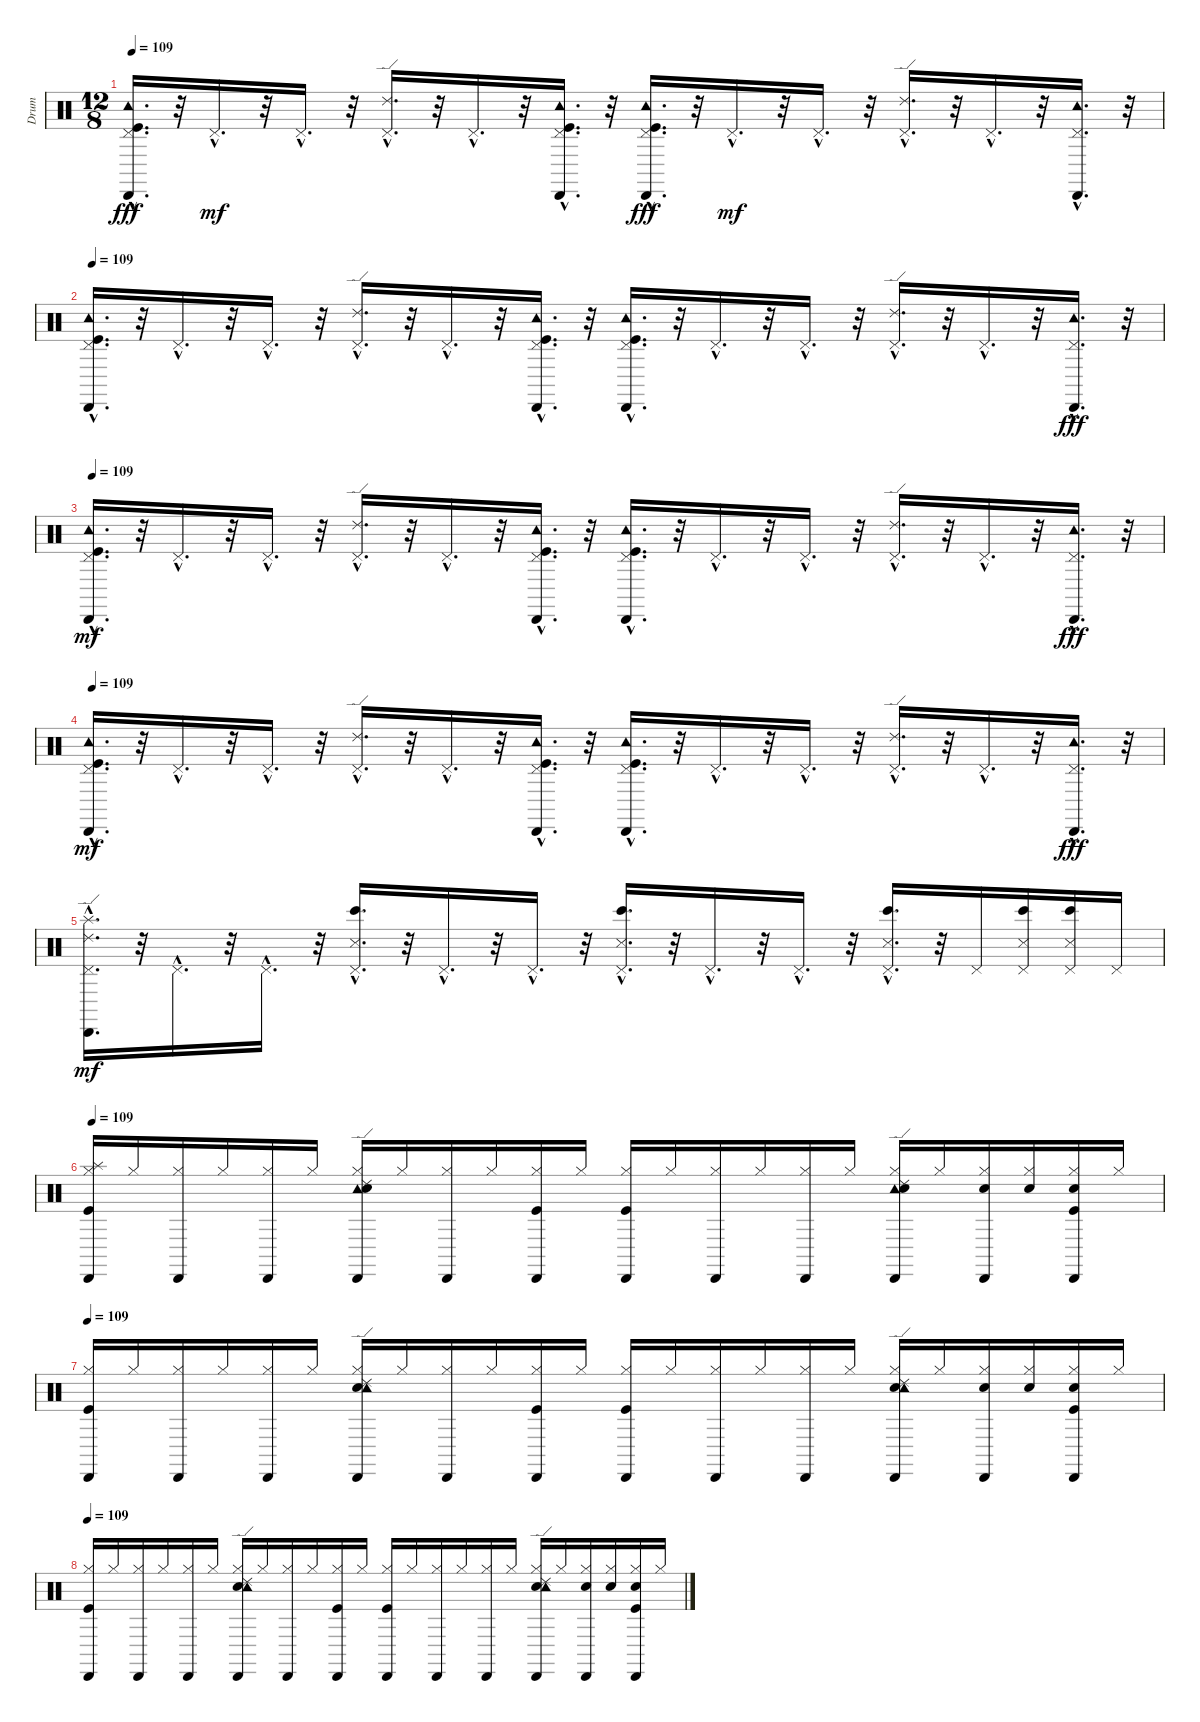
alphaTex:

\track ("Drum" "Drum") {instrument percussion}
\staff {score}
\articulation defaults
\ts (12 8)
\tempo 109
\clef neutral
\ks c
("Kick (hit)"{hac} "Tambourine (hit)"{hac} "Pedal Hi-Hat (hit)"{hac} "Cabasa (hit)"{hac}).16{d dy fff} r.32 "Pedal Hi-Hat (hit)"{hac}.16{d dy mf} r.32 "Pedal Hi-Hat (hit)"{hac}.16{d} r.32 ("Ride (edge) 2"{hac} "Pedal Hi-Hat (hit)"{hac}).16{d} r.32 "Pedal Hi-Hat (hit)"{hac}.16{d} r.32 ("Kick (hit)"{hac} "Cabasa (hit)"{hac} "Pedal Hi-Hat (hit)"{hac} "Tambourine (hit)"{hac}).16{d} r.32 ("Kick (hit)"{hac} "Tambourine (hit)"{hac} "Pedal Hi-Hat (hit)"{hac} "Cabasa (hit)"{hac}).16{d dy fff} r.32 "Pedal Hi-Hat (hit)"{hac}.16{d dy mf} r.32 "Pedal Hi-Hat (hit)"{hac}.16{d} r.32 ("Ride (edge) 2"{hac} "Pedal Hi-Hat (hit)"{hac}).16{d} r.32 "Pedal Hi-Hat (hit)"{hac}.16{d} r.32 ("Cabasa (hit)"{hac} "Pedal Hi-Hat (hit)"{hac} "Tambourine (hit)"{hac}).16{d} r.32 |
\tempo 109
("Cabasa (hit)"{hac} "Pedal Hi-Hat (hit)"{hac} "Tambourine (hit)"{hac} "Kick (hit)"{hac}).16{d} r.32 "Pedal Hi-Hat (hit)"{hac}.16{d} r.32 "Pedal Hi-Hat (hit)"{hac}.16{d} r.32 ("Pedal Hi-Hat (hit)"{hac} "Ride (edge) 2"{hac}).16{d} r.32 "Pedal Hi-Hat (hit)"{hac}.16{d} r.32 ("Tambourine (hit)"{hac} "Pedal Hi-Hat (hit)"{hac} "Cabasa (hit)"{hac} "Kick (hit)"{hac}).16{d} r.32 ("Cabasa (hit)"{hac} "Pedal Hi-Hat (hit)"{hac} "Tambourine (hit)"{hac} "Kick (hit)"{hac}).16{d} r.32 "Pedal Hi-Hat (hit)"{hac}.16{d} r.32 "Pedal Hi-Hat (hit)"{hac}.16{d} r.32 ("Pedal Hi-Hat (hit)"{hac} "Ride (edge) 2"{hac}).16{d} r.32 "Pedal Hi-Hat (hit)"{hac}.16{d} r.32 ("Tambourine (hit)"{hac} "Pedal Hi-Hat (hit)"{hac} "Cabasa (hit)"{hac}).16{d dy fff} r.32 |
\tempo 109
("Cabasa (hit)"{hac} "Pedal Hi-Hat (hit)"{hac} "Tambourine (hit)"{hac} "Kick (hit)"{hac}).16{d dy mf} r.32 "Pedal Hi-Hat (hit)"{hac}.16{d} r.32 "Pedal Hi-Hat (hit)"{hac}.16{d} r.32 ("Pedal Hi-Hat (hit)"{hac} "Ride (edge) 2"{hac}).16{d} r.32 "Pedal Hi-Hat (hit)"{hac}.16{d} r.32 ("Tambourine (hit)"{hac} "Pedal Hi-Hat (hit)"{hac} "Cabasa (hit)"{hac} "Kick (hit)"{hac}).16{d} r.32 ("Cabasa (hit)"{hac} "Pedal Hi-Hat (hit)"{hac} "Tambourine (hit)"{hac} "Kick (hit)"{hac}).16{d} r.32 "Pedal Hi-Hat (hit)"{hac}.16{d} r.32 "Pedal Hi-Hat (hit)"{hac}.16{d} r.32 ("Pedal Hi-Hat (hit)"{hac} "Ride (edge) 2"{hac}).16{d} r.32 "Pedal Hi-Hat (hit)"{hac}.16{d} r.32 ("Tambourine (hit)"{hac} "Pedal Hi-Hat (hit)"{hac} "Cabasa (hit)"{hac}).16{d dy fff} r.32 |
\tempo 109
("Cabasa (hit)"{hac} "Pedal Hi-Hat (hit)"{hac} "Tambourine (hit)"{hac} "Kick (hit)"{hac}).16{d dy mf} r.32 "Pedal Hi-Hat (hit)"{hac}.16{d} r.32 "Pedal Hi-Hat (hit)"{hac}.16{d} r.32 ("Pedal Hi-Hat (hit)"{hac} "Ride (edge) 2"{hac}).16{d} r.32 "Pedal Hi-Hat (hit)"{hac}.16{d} r.32 ("Tambourine (hit)"{hac} "Pedal Hi-Hat (hit)"{hac} "Cabasa (hit)"{hac} "Kick (hit)"{hac}).16{d} r.32 ("Cabasa (hit)"{hac} "Pedal Hi-Hat (hit)"{hac} "Tambourine (hit)"{hac} "Kick (hit)"{hac}).16{d} r.32 "Pedal Hi-Hat (hit)"{hac}.16{d} r.32 "Pedal Hi-Hat (hit)"{hac}.16{d} r.32 ("Pedal Hi-Hat (hit)"{hac} "Ride (edge) 2"{hac}).16{d} r.32 "Pedal Hi-Hat (hit)"{hac}.16{d} r.32 ("Tambourine (hit)"{hac} "Pedal Hi-Hat (hit)"{hac} "Cabasa (hit)"{hac}).16{d dy fff} r.32 |
("Cabasa (hit)"{hac} "Ride (edge) 2"{hac} "Splash (hit)"{hac} "Pedal Hi-Hat (hit)"{hac}).16{d dy mf} r.32 "Pedal Hi-Hat (hit)"{hac}.16{d} r.32 "Pedal Hi-Hat (hit)"{hac}.16{d} r.32 ("Bongo High (hit)"{hac} "Snare (side stick) 3"{hac} "Pedal Hi-Hat (hit)"{hac}).16{d} r.32 "Pedal Hi-Hat (hit)"{hac}.16{d} r.32 "Pedal Hi-Hat (hit)"{hac}.16{d} r.32 ("Snare (side stick) 3"{hac} "Bongo High (hit)"{hac} "Pedal Hi-Hat (hit)"{hac}).16{d} r.32 "Pedal Hi-Hat (hit)"{hac}.16{d} r.32 "Pedal Hi-Hat (hit)"{hac}.16{d} r.32 ("Bongo High (hit)"{hac} "Pedal Hi-Hat (hit)"{hac} "Snare (side stick) 3"{hac}).16{d} r.32 "Pedal Hi-Hat (hit)".16 ("Bongo High (hit)" "Pedal Hi-Hat (hit)" "Snare (side stick) 3").16 ("Pedal Hi-Hat (hit)" "Bongo High (hit)" "Snare (side stick) 3").16 "Pedal Hi-Hat (hit)".16 |
\tempo 109
("Splash (hit)" "Cabasa (hit)" "Kick (hit)" "Hi-Hat (closed)").16 "Hi-Hat (closed)".16 ("Cabasa (hit)" "Hi-Hat (closed)").16 "Hi-Hat (closed)".16 ("Cabasa (hit)" "Hi-Hat (closed)").16 "Hi-Hat (closed)".16 ("Ride (edge) 2" "Cabasa (hit)" "Tambourine (hit)" "Snare (hit) 2" "Hi-Hat (closed)").16 "Hi-Hat (closed)".16 ("Cabasa (hit)" "Hi-Hat (closed)").16 "Hi-Hat (closed)".16 ("Kick (hit)" "Cabasa (hit)" "Hi-Hat (closed)").16 "Hi-Hat (closed)".16 ("Cabasa (hit)" "Kick (hit)" "Hi-Hat (closed)").16 "Hi-Hat (closed)".16 ("Cabasa (hit)" "Hi-Hat (closed)").16 "Hi-Hat (closed)".16 ("Cabasa (hit)" "Hi-Hat (closed)").16 "Hi-Hat (closed)".16 ("Ride (edge) 2" "Cabasa (hit)" "Tambourine (hit)" "Snare (hit) 2" "Hi-Hat (closed)").16 "Hi-Hat (closed)".16 ("Electric Snare (hit)" "Cabasa (hit)" "Hi-Hat (closed)").16 ("Electric Snare (hit)" "Hi-Hat (closed)").16 ("Electric Snare (hit)" "Kick (hit)" "Cabasa (hit)" "Hi-Hat (closed)").16 "Hi-Hat (closed)".16 |
\tempo 109
("Hi-Hat (closed)" "Kick (hit)" "Cabasa (hit)").16 "Hi-Hat (closed)".16 ("Hi-Hat (closed)" "Cabasa (hit)").16 "Hi-Hat (closed)".16 ("Hi-Hat (closed)" "Cabasa (hit)").16 "Hi-Hat (closed)".16 ("Hi-Hat (closed)" "Snare (hit) 2" "Tambourine (hit)" "Cabasa (hit)" "Ride (edge) 2").16 "Hi-Hat (closed)".16 ("Hi-Hat (closed)" "Cabasa (hit)").16 "Hi-Hat (closed)".16 ("Hi-Hat (closed)" "Cabasa (hit)" "Kick (hit)").16 "Hi-Hat (closed)".16 ("Hi-Hat (closed)" "Kick (hit)" "Cabasa (hit)").16 "Hi-Hat (closed)".16 ("Hi-Hat (closed)" "Cabasa (hit)").16 "Hi-Hat (closed)".16 ("Hi-Hat (closed)" "Cabasa (hit)").16 "Hi-Hat (closed)".16 ("Hi-Hat (closed)" "Snare (hit) 2" "Tambourine (hit)" "Cabasa (hit)" "Ride (edge) 2").16 "Hi-Hat (closed)".16 ("Hi-Hat (closed)" "Cabasa (hit)" "Electric Snare (hit)").16 ("Hi-Hat (closed)" "Electric Snare (hit)").16 ("Hi-Hat (closed)" "Cabasa (hit)" "Kick (hit)" "Electric Snare (hit)").16 "Hi-Hat (closed)".16 |
\tempo 109
("Hi-Hat (closed)" "Kick (hit)" "Cabasa (hit)").16 "Hi-Hat (closed)".16 ("Hi-Hat (closed)" "Cabasa (hit)").16 "Hi-Hat (closed)".16 ("Hi-Hat (closed)" "Cabasa (hit)").16 "Hi-Hat (closed)".16 ("Hi-Hat (closed)" "Snare (hit) 2" "Tambourine (hit)" "Cabasa (hit)" "Ride (edge) 2").16 "Hi-Hat (closed)".16 ("Hi-Hat (closed)" "Cabasa (hit)").16 "Hi-Hat (closed)".16 ("Hi-Hat (closed)" "Cabasa (hit)" "Kick (hit)").16 "Hi-Hat (closed)".16 ("Hi-Hat (closed)" "Kick (hit)" "Cabasa (hit)").16 "Hi-Hat (closed)".16 ("Hi-Hat (closed)" "Cabasa (hit)").16 "Hi-Hat (closed)".16 ("Hi-Hat (closed)" "Cabasa (hit)").16 "Hi-Hat (closed)".16 ("Hi-Hat (closed)" "Snare (hit) 2" "Tambourine (hit)" "Cabasa (hit)" "Ride (edge) 2").16 "Hi-Hat (closed)".16 ("Hi-Hat (closed)" "Cabasa (hit)" "Electric Snare (hit)").16 ("Hi-Hat (closed)" "Electric Snare (hit)").16 ("Hi-Hat (closed)" "Cabasa (hit)" "Kick (hit)" "Electric Snare (hit)").16 "Hi-Hat (closed)".16
